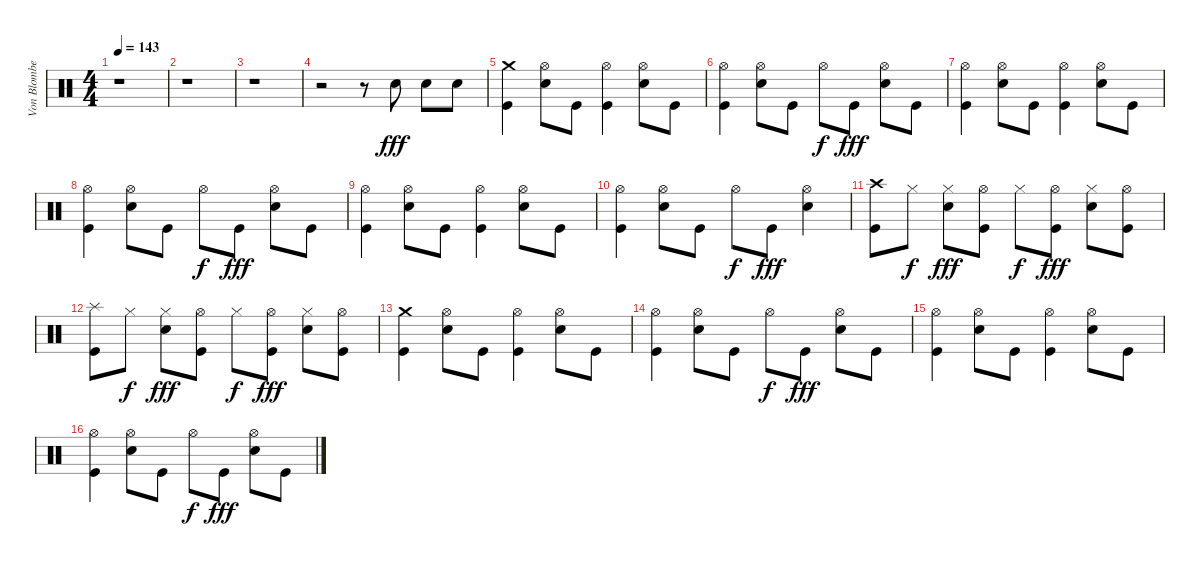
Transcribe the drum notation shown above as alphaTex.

\track ("Von Blomberg" "Von Blombe") {instrument percussion}
\staff {score}
\articulation defaults
\ts (4 4)
\tempo 143
\clef neutral
\ks c
r.1{dy fff} |
r.1 |
r.1 |
r.2 r.8 "Electric Snare (hit)".8 "Electric Snare (hit)".8 "Electric Snare (hit)".8 |
("Crash medium (hit)" "Kick (hit)").4 ("Hi-Hat (open)" "Electric Snare (hit)").8 "Kick (hit)".8 ("Hi-Hat (open)" "Kick (hit)").4 ("Hi-Hat (open)" "Electric Snare (hit)").8 "Kick (hit)".8 |
("Hi-Hat (open)" "Kick (hit)").4 ("Hi-Hat (open)" "Electric Snare (hit)").8 "Kick (hit)".8 "Hi-Hat (open)".8{dy f} "Kick (hit)".8{dy fff} ("Hi-Hat (open)" "Electric Snare (hit)").8 "Kick (hit)".8 |
("Hi-Hat (open)" "Kick (hit)").4 ("Hi-Hat (open)" "Electric Snare (hit)").8 "Kick (hit)".8 ("Hi-Hat (open)" "Kick (hit)").4 ("Hi-Hat (open)" "Electric Snare (hit)").8 "Kick (hit)".8 |
("Hi-Hat (open)" "Kick (hit)").4 ("Hi-Hat (open)" "Electric Snare (hit)").8 "Kick (hit)".8 "Hi-Hat (open)".8{dy f} "Kick (hit)".8{dy fff} ("Hi-Hat (open)" "Electric Snare (hit)").8 "Kick (hit)".8 |
("Hi-Hat (open)" "Kick (hit)").4 ("Hi-Hat (open)" "Electric Snare (hit)").8 "Kick (hit)".8 ("Hi-Hat (open)" "Kick (hit)").4 ("Hi-Hat (open)" "Electric Snare (hit)").8 "Kick (hit)".8 |
("Hi-Hat (open)" "Kick (hit)").4 ("Hi-Hat (open)" "Electric Snare (hit)").8 "Kick (hit)".8 "Hi-Hat (open)".8{dy f} "Kick (hit)".8{dy fff} ("Hi-Hat (open)" "Electric Snare (hit)").4 |
("Crash high (hit)" "Kick (hit)").8 "Hi-Hat (closed)".8{dy f} ("Hi-Hat (closed)" "Electric Snare (hit)").8{dy fff} ("Hi-Hat (open)" "Kick (hit)").8 "Hi-Hat (closed)".8{dy f} ("Hi-Hat (open)" "Kick (hit)").8{dy fff} ("Hi-Hat (closed)" "Electric Snare (hit)").8 ("Hi-Hat (open)" "Kick (hit)").8 |
("Splash (hit)" "Kick (hit)").8 "Hi-Hat (closed)".8{dy f} ("Hi-Hat (closed)" "Electric Snare (hit)").8{dy fff} ("Hi-Hat (open)" "Kick (hit)").8 "Hi-Hat (closed)".8{dy f} ("Hi-Hat (open)" "Kick (hit)").8{dy fff} ("Hi-Hat (closed)" "Electric Snare (hit)").8 ("Hi-Hat (open)" "Kick (hit)").8 |
("Crash medium (hit)" "Kick (hit)").4 ("Hi-Hat (open)" "Electric Snare (hit)").8 "Kick (hit)".8 ("Hi-Hat (open)" "Kick (hit)").4 ("Hi-Hat (open)" "Electric Snare (hit)").8 "Kick (hit)".8 |
("Hi-Hat (open)" "Kick (hit)").4 ("Hi-Hat (open)" "Electric Snare (hit)").8 "Kick (hit)".8 "Hi-Hat (open)".8{dy f} "Kick (hit)".8{dy fff} ("Hi-Hat (open)" "Electric Snare (hit)").8 "Kick (hit)".8 |
("Hi-Hat (open)" "Kick (hit)").4 ("Hi-Hat (open)" "Electric Snare (hit)").8 "Kick (hit)".8 ("Hi-Hat (open)" "Kick (hit)").4 ("Hi-Hat (open)" "Electric Snare (hit)").8 "Kick (hit)".8 |
("Hi-Hat (open)" "Kick (hit)").4 ("Hi-Hat (open)" "Electric Snare (hit)").8 "Kick (hit)".8 "Hi-Hat (open)".8{dy f} "Kick (hit)".8{dy fff} ("Hi-Hat (open)" "Electric Snare (hit)").8 "Kick (hit)".8
